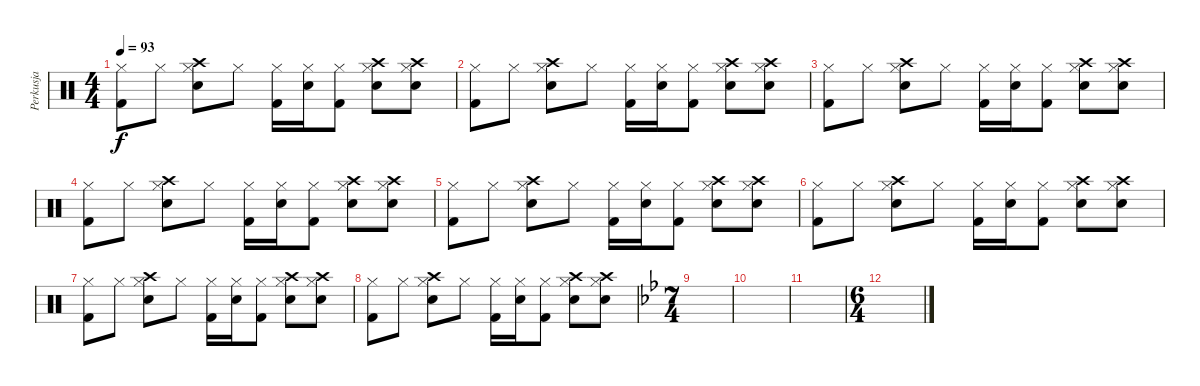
\track ("Perkusja" "Perkusja") {instrument percussion}
\staff {score}
\articulation defaults
\ts (4 4)
\tempo 93
\clef neutral
\ks c
("Hi-Hat (closed)" "Kick (hit) 2").8{dy f} "Hi-Hat (closed)".8 ("Hi-Hat (closed)" "Electric Snare (hit)" "Crash high (hit)").8 "Hi-Hat (closed)".8 ("Hi-Hat (closed)" "Kick (hit) 2").16 ("Hi-Hat (closed)" "Electric Snare (hit)").16 ("Hi-Hat (closed)" "Kick (hit) 2").8 ("Hi-Hat (closed)" "Electric Snare (hit)" "Crash high (hit)").8 ("Hi-Hat (closed)" "Electric Snare (hit)" "Crash high (hit)").8 |
("Hi-Hat (closed)" "Kick (hit) 2").8 "Hi-Hat (closed)".8 ("Hi-Hat (closed)" "Electric Snare (hit)" "Crash high (hit)").8 "Hi-Hat (closed)".8 ("Hi-Hat (closed)" "Kick (hit) 2").16 ("Hi-Hat (closed)" "Electric Snare (hit)").16 ("Hi-Hat (closed)" "Kick (hit) 2").8 ("Hi-Hat (closed)" "Electric Snare (hit)" "Crash high (hit)").8 ("Hi-Hat (closed)" "Electric Snare (hit)" "Crash high (hit)").8 |
("Hi-Hat (closed)" "Kick (hit) 2").8 "Hi-Hat (closed)".8 ("Hi-Hat (closed)" "Electric Snare (hit)" "Crash high (hit)").8 "Hi-Hat (closed)".8 ("Hi-Hat (closed)" "Kick (hit) 2").16 ("Hi-Hat (closed)" "Electric Snare (hit)").16 ("Hi-Hat (closed)" "Kick (hit) 2").8 ("Hi-Hat (closed)" "Electric Snare (hit)" "Crash high (hit)").8 ("Hi-Hat (closed)" "Electric Snare (hit)" "Crash high (hit)").8 |
("Hi-Hat (closed)" "Kick (hit) 2").8 "Hi-Hat (closed)".8 ("Hi-Hat (closed)" "Electric Snare (hit)" "Crash high (hit)").8 "Hi-Hat (closed)".8 ("Hi-Hat (closed)" "Kick (hit) 2").16 ("Hi-Hat (closed)" "Electric Snare (hit)").16 ("Hi-Hat (closed)" "Kick (hit) 2").8 ("Hi-Hat (closed)" "Electric Snare (hit)" "Crash high (hit)").8 ("Hi-Hat (closed)" "Electric Snare (hit)" "Crash high (hit)").8 |
("Hi-Hat (closed)" "Kick (hit) 2").8 "Hi-Hat (closed)".8 ("Hi-Hat (closed)" "Electric Snare (hit)" "Crash high (hit)").8 "Hi-Hat (closed)".8 ("Hi-Hat (closed)" "Kick (hit) 2").16 ("Hi-Hat (closed)" "Electric Snare (hit)").16 ("Hi-Hat (closed)" "Kick (hit) 2").8 ("Hi-Hat (closed)" "Electric Snare (hit)" "Crash high (hit)").8 ("Hi-Hat (closed)" "Electric Snare (hit)" "Crash high (hit)").8 |
("Hi-Hat (closed)" "Kick (hit) 2").8 "Hi-Hat (closed)".8 ("Hi-Hat (closed)" "Electric Snare (hit)" "Crash high (hit)").8 "Hi-Hat (closed)".8 ("Hi-Hat (closed)" "Kick (hit) 2").16 ("Hi-Hat (closed)" "Electric Snare (hit)").16 ("Hi-Hat (closed)" "Kick (hit) 2").8 ("Hi-Hat (closed)" "Electric Snare (hit)" "Crash high (hit)").8 ("Hi-Hat (closed)" "Electric Snare (hit)" "Crash high (hit)").8 |
("Hi-Hat (closed)" "Kick (hit) 2").8 "Hi-Hat (closed)".8 ("Hi-Hat (closed)" "Electric Snare (hit)" "Crash high (hit)").8 "Hi-Hat (closed)".8 ("Hi-Hat (closed)" "Kick (hit) 2").16 ("Hi-Hat (closed)" "Electric Snare (hit)").16 ("Hi-Hat (closed)" "Kick (hit) 2").8 ("Hi-Hat (closed)" "Electric Snare (hit)" "Crash high (hit)").8 ("Hi-Hat (closed)" "Electric Snare (hit)" "Crash high (hit)").8 |
("Hi-Hat (closed)" "Kick (hit) 2").8 "Hi-Hat (closed)".8 ("Hi-Hat (closed)" "Electric Snare (hit)" "Crash high (hit)").8 "Hi-Hat (closed)".8 ("Hi-Hat (closed)" "Kick (hit) 2").16 ("Hi-Hat (closed)" "Electric Snare (hit)").16 ("Hi-Hat (closed)" "Kick (hit) 2").8 ("Hi-Hat (closed)" "Electric Snare (hit)" "Crash high (hit)").8 ("Hi-Hat (closed)" "Electric Snare (hit)" "Crash high (hit)").8 |
\ts (7 4)
\ks bb
|
|
|
\ts (6 4)
